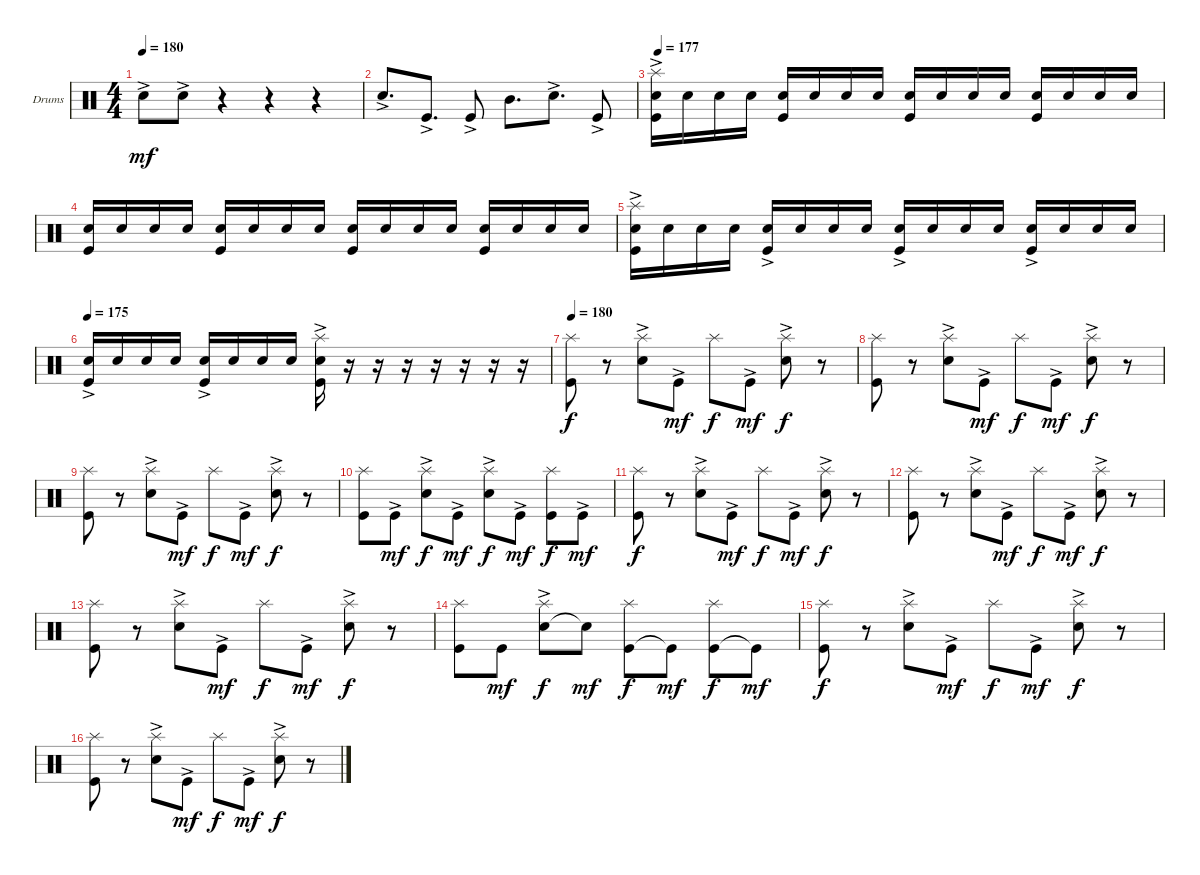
\defaultSystemsLayout 4
\bracketExtendMode groupsimilarinstruments
\firstSystemTrackNameOrientation horizontal
\otherSystemsTrackNameOrientation horizontal
\track ("Drumkit" "Drums") {instrument percussion}
\staff {score}
\articulation defaults
\ts (4 4)
\tempo 180
\clef neutral
\ks c "Snare (hit) 2"{ac}.8{dy mf} "Snare (hit) 2"{ac}.8
r.4 r.4 r.4 |
"Snare (hit) 2"{ac}.8{d} "Kick (hit)"{ac}.8{d} "Kick (hit)"{ac}.8 "Mid Tom (hit)".8{d} "Snare (hit) 2"{ac}.8{d} "Kick (hit)"{ac}.8 |
\tempo (177 0.00625)
("Kick (hit)"{ac} "Snare (hit) 2"{ac} "Splash (hit)"{ac}).16 "Snare (hit) 2".16 "Snare (hit) 2".16 "Snare (hit) 2".16 ("Kick (hit)" "Snare (hit) 2").16 "Snare (hit) 2".16 "Snare (hit) 2".16 "Snare (hit) 2".16 ("Snare (hit) 2" "Kick (hit)").16 "Snare (hit) 2".16 "Snare (hit) 2".16 "Snare (hit) 2".16 ("Snare (hit) 2" "Kick (hit)").16 "Snare (hit) 2".16 "Snare (hit) 2".16 "Snare (hit) 2".16 |
("Snare (hit) 2" "Kick (hit)").16 "Snare (hit) 2".16 "Snare (hit) 2".16 "Snare (hit) 2".16 ("Snare (hit) 2" "Kick (hit)").16 "Snare (hit) 2".16 "Snare (hit) 2".16 "Snare (hit) 2".16 ("Snare (hit) 2" "Kick (hit)").16 "Snare (hit) 2".16 "Snare (hit) 2".16 "Snare (hit) 2".16 ("Snare (hit) 2" "Kick (hit)").16 "Snare (hit) 2".16 "Snare (hit) 2".16 "Snare (hit) 2".16 |
("Kick (hit)"{ac} "Snare (hit) 2" "Splash (hit)").16 "Snare (hit) 2".16 "Snare (hit) 2".16 "Snare (hit) 2".16 ("Kick (hit)"{ac} "Snare (hit) 2").16 "Snare (hit) 2".16 "Snare (hit) 2".16 "Snare (hit) 2".16 ("Snare (hit) 2" "Kick (hit)"{ac}).16 "Snare (hit) 2".16 "Snare (hit) 2".16 "Snare (hit) 2".16 ("Snare (hit) 2" "Kick (hit)"{ac}).16 "Snare (hit) 2".16 "Snare (hit) 2".16 "Snare (hit) 2".16 |
\tempo 175
("Snare (hit) 2" "Kick (hit)"{ac}).16 "Snare (hit) 2".16 "Snare (hit) 2".16 "Snare (hit) 2".16 ("Snare (hit) 2" "Kick (hit)"{ac}).16 "Snare (hit) 2".16 "Snare (hit) 2".16 "Snare (hit) 2".16 ("Snare (hit) 2" "Kick (hit)"{ac} "Splash (hit)").16 r.16 r.16 r.16 r.16 r.16 r.16 r.16 |
\tempo (180 0.00625)
("Kick (hit)" "Splash (hit)").8{dy f} r.8 ("Snare (hit) 2"{ac} "Splash (hit)").8 "Kick (hit)"{ac}.8{dy mf} "Splash (hit)".8{dy f} "Kick (hit)"{ac}.8{dy mf} ("Snare (hit) 2"{ac} "Splash (hit)").8{dy f} r.8 |
("Kick (hit)" "Splash (hit)").8 r.8 ("Snare (hit) 2"{ac} "Splash (hit)").8 "Kick (hit)"{ac}.8{dy mf} "Splash (hit)".8{dy f} "Kick (hit)"{ac}.8{dy mf} ("Snare (hit) 2"{ac} "Splash (hit)").8{dy f} r.8 |
("Kick (hit)" "Splash (hit)").8 r.8 ("Snare (hit) 2"{ac} "Splash (hit)").8 "Kick (hit)"{ac}.8{dy mf} "Splash (hit)".8{dy f} "Kick (hit)"{ac}.8{dy mf} ("Snare (hit) 2"{ac} "Splash (hit)").8{dy f} r.8 |
("Kick (hit)" "Splash (hit)").8 "Kick (hit)"{ac}.8{dy mf} ("Snare (hit) 2"{ac} "Splash (hit)").8{dy f} "Kick (hit)"{ac}.8{dy mf} ("Snare (hit) 2"{ac} "Splash (hit)").8{dy f} "Kick (hit)"{ac}.8{dy mf} ("Kick (hit)" "Splash (hit)").8{dy f} "Kick (hit)"{ac}.8{dy mf} |
("Kick (hit)" "Splash (hit)").8{dy f} r.8 ("Snare (hit) 2"{ac} "Splash (hit)").8 "Kick (hit)"{ac}.8{dy mf} "Splash (hit)".8{dy f} "Kick (hit)"{ac}.8{dy mf} ("Snare (hit) 2"{ac} "Splash (hit)").8{dy f} r.8 |
("Kick (hit)" "Splash (hit)").8 r.8 ("Snare (hit) 2"{ac} "Splash (hit)").8 "Kick (hit)"{ac}.8{dy mf} "Splash (hit)".8{dy f} "Kick (hit)"{ac}.8{dy mf} ("Snare (hit) 2"{ac} "Splash (hit)").8{dy f} r.8 |
("Kick (hit)" "Splash (hit)").8 r.8 ("Snare (hit) 2"{ac} "Splash (hit)").8 "Kick (hit)"{ac}.8{dy mf} "Splash (hit)".8{dy f} "Kick (hit)"{ac}.8{dy mf} ("Snare (hit) 2"{ac} "Splash (hit)").8{dy f} r.8 |
("Kick (hit)" "Splash (hit)").8 "Kick (hit)".8{dy mf} ("Snare (hit) 2"{ac} "Splash (hit)").8{dy f} "Snare (hit) 2"{t}.8{dy mf} ("Kick (hit)" "Splash (hit)").8{dy f} "Kick (hit)"{t}.8{dy mf} ("Kick (hit)" "Splash (hit)").8{dy f} "Kick (hit)"{t}.8{dy mf} |
("Kick (hit)" "Splash (hit)").8{dy f} r.8 ("Snare (hit) 2"{ac} "Splash (hit)").8 "Kick (hit)"{ac}.8{dy mf} "Splash (hit)".8{dy f} "Kick (hit)"{ac}.8{dy mf} ("Snare (hit) 2"{ac} "Splash (hit)").8{dy f} r.8 |
("Kick (hit)" "Splash (hit)").8 r.8 ("Snare (hit) 2"{ac} "Splash (hit)").8 "Kick (hit)"{ac}.8{dy mf} "Splash (hit)".8{dy f} "Kick (hit)"{ac}.8{dy mf} ("Snare (hit) 2"{ac} "Splash (hit)").8{dy f} r.8
